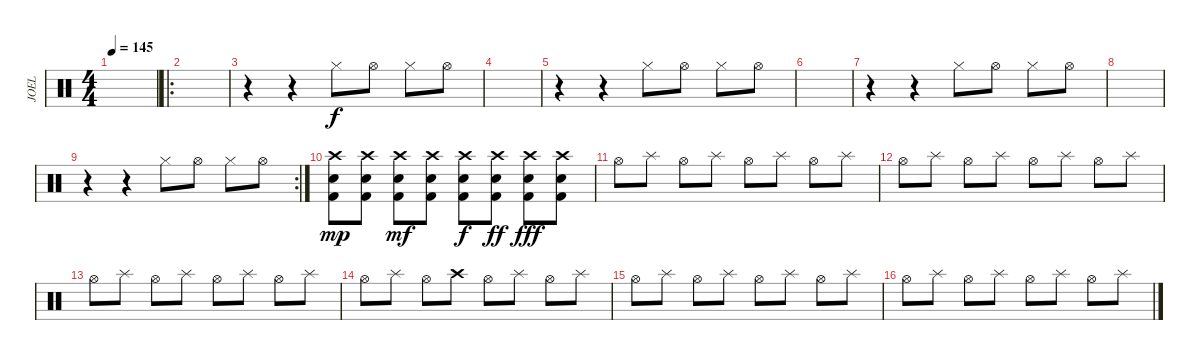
\track ("JOEL" "JOEL") {instrument percussion}
\staff {score}
\articulation defaults
\ts (4 4)
\tempo 145
\clef neutral
\ks c
|
\ro
|
r.4 r.4 "Hi-Hat (closed)".8{dy f} "Hi-Hat (open)".8 "Hi-Hat (closed)".8 "Hi-Hat (open)".8 |
|
r.4 r.4 "Hi-Hat (closed)".8 "Hi-Hat (open)".8 "Hi-Hat (closed)".8 "Hi-Hat (open)".8 |
|
r.4 r.4 "Hi-Hat (closed)".8 "Hi-Hat (open)".8 "Hi-Hat (closed)".8 "Hi-Hat (open)".8 |
|
\rc 2
r.4 r.4 "Hi-Hat (closed)".8 "Hi-Hat (open)".8 "Hi-Hat (closed)".8 "Hi-Hat (open)".8 |
("Kick (hit) 2" "Electric Snare (hit)" "Crash high (hit)").8{dy mp} ("Kick (hit) 2" "Electric Snare (hit)" "Crash high (hit)").8 ("Kick (hit) 2" "Electric Snare (hit)" "Crash high (hit)").8{dy mf} ("Kick (hit) 2" "Electric Snare (hit)" "Crash high (hit)").8 ("Kick (hit) 2" "Electric Snare (hit)" "Crash high (hit)").8{dy f} ("Kick (hit) 2" "Electric Snare (hit)" "Crash high (hit)").8{dy ff} ("Kick (hit) 2" "Electric Snare (hit)" "Crash high (hit)").8{dy fff} ("Kick (hit) 2" "Electric Snare (hit)" "Crash high (hit)").8 |
"Hi-Hat (open)".8 "Splash (hit)".8 "Hi-Hat (open)".8 "Splash (hit)".8 "Hi-Hat (open)".8 "Splash (hit)".8 "Hi-Hat (open)".8 "Splash (hit)".8 |
"Hi-Hat (open)".8 "Splash (hit)".8 "Hi-Hat (open)".8 "Splash (hit)".8 "Hi-Hat (open)".8 "Splash (hit)".8 "Hi-Hat (open)".8 "Splash (hit)".8 |
"Hi-Hat (open)".8 "Splash (hit)".8 "Hi-Hat (open)".8 "Splash (hit)".8 "Hi-Hat (open)".8 "Splash (hit)".8 "Hi-Hat (open)".8 "Splash (hit)".8 |
"Hi-Hat (open)".8 "Splash (hit)".8 "Hi-Hat (open)".8 "Crash high (hit)".8 "Hi-Hat (open)".8 "Splash (hit)".8 "Hi-Hat (open)".8 "Splash (hit)".8 |
"Hi-Hat (open)".8 "Splash (hit)".8 "Hi-Hat (open)".8 "Splash (hit)".8 "Hi-Hat (open)".8 "Splash (hit)".8 "Hi-Hat (open)".8 "Splash (hit)".8 |
"Hi-Hat (open)".8 "Splash (hit)".8 "Hi-Hat (open)".8 "Splash (hit)".8 "Hi-Hat (open)".8 "Splash (hit)".8 "Hi-Hat (open)".8 "Splash (hit)".8
